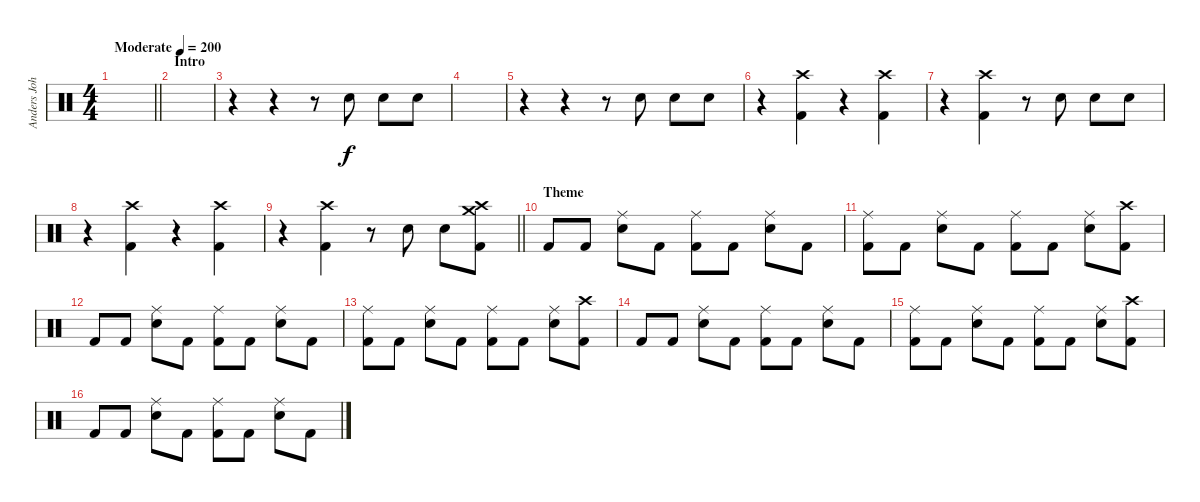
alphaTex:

\track ("Anders Johansson" "Anders Joh") {instrument percussion}
\staff {score}
\articulation defaults
\ts (4 4)
\tempo (200 "Moderate")
\clef neutral
\barLineRight lightlight
\ks c
|
\section ("" "Intro")
|
r.4 r.4 r.8 "Snare (hit) 2".8 "Snare (hit) 2".8 "Snare (hit) 2".8 |
|
r.4 r.4 r.8 "Snare (hit) 2".8 "Snare (hit) 2".8 "Snare (hit) 2".8 |
r.4 ("Crash high (hit)" "Kick (hit) 2").4 r.4 ("Crash high (hit)" "Kick (hit) 2").4 |
r.4 ("Crash high (hit)" "Kick (hit) 2").4 r.8 "Snare (hit) 2".8 "Snare (hit) 2".8 "Snare (hit) 2".8 |
r.4 ("Crash high (hit)" "Kick (hit) 2").4 r.4 ("Crash high (hit)" "Kick (hit) 2").4 |
\barLineRight lightlight
r.4 ("Crash high (hit)" "Kick (hit) 2").4 r.8 "Snare (hit) 2".8 "Snare (hit) 2".8 ("Crash medium (hit)" "Crash high (hit)" "Kick (hit) 2").8 |
\section ("" "Theme")
"Kick (hit) 2".8 "Kick (hit) 2".8 ("Ride (middle)" "Snare (hit) 2").8 "Kick (hit) 2".8 ("Ride (middle)" "Kick (hit) 2").8 "Kick (hit) 2".8 ("Ride (middle)" "Snare (hit) 2").8 "Kick (hit) 2".8 |
("Ride (middle)" "Kick (hit) 2").8 "Kick (hit) 2".8 ("Ride (middle)" "Snare (hit) 2").8 "Kick (hit) 2".8 ("Ride (middle)" "Kick (hit) 2").8 "Kick (hit) 2".8 ("Ride (middle)" "Snare (hit) 2").8 ("Crash high (hit)" "Kick (hit) 2").8 |
"Kick (hit) 2".8 "Kick (hit) 2".8 ("Ride (middle)" "Snare (hit) 2").8 "Kick (hit) 2".8 ("Ride (middle)" "Kick (hit) 2").8 "Kick (hit) 2".8 ("Ride (middle)" "Snare (hit) 2").8 "Kick (hit) 2".8 |
("Ride (middle)" "Kick (hit) 2").8 "Kick (hit) 2".8 ("Ride (middle)" "Snare (hit) 2").8 "Kick (hit) 2".8 ("Ride (middle)" "Kick (hit) 2").8 "Kick (hit) 2".8 ("Ride (middle)" "Snare (hit) 2").8 ("Crash high (hit)" "Kick (hit) 2").8 |
"Kick (hit) 2".8 "Kick (hit) 2".8 ("Ride (middle)" "Snare (hit) 2").8 "Kick (hit) 2".8 ("Ride (middle)" "Kick (hit) 2").8 "Kick (hit) 2".8 ("Ride (middle)" "Snare (hit) 2").8 "Kick (hit) 2".8 |
("Ride (middle)" "Kick (hit) 2").8 "Kick (hit) 2".8 ("Ride (middle)" "Snare (hit) 2").8 "Kick (hit) 2".8 ("Ride (middle)" "Kick (hit) 2").8 "Kick (hit) 2".8 ("Ride (middle)" "Snare (hit) 2").8 ("Crash high (hit)" "Kick (hit) 2").8 |
"Kick (hit) 2".8 "Kick (hit) 2".8 ("Ride (middle)" "Snare (hit) 2").8 "Kick (hit) 2".8 ("Ride (middle)" "Kick (hit) 2").8 "Kick (hit) 2".8 ("Ride (middle)" "Snare (hit) 2").8 "Kick (hit) 2".8
